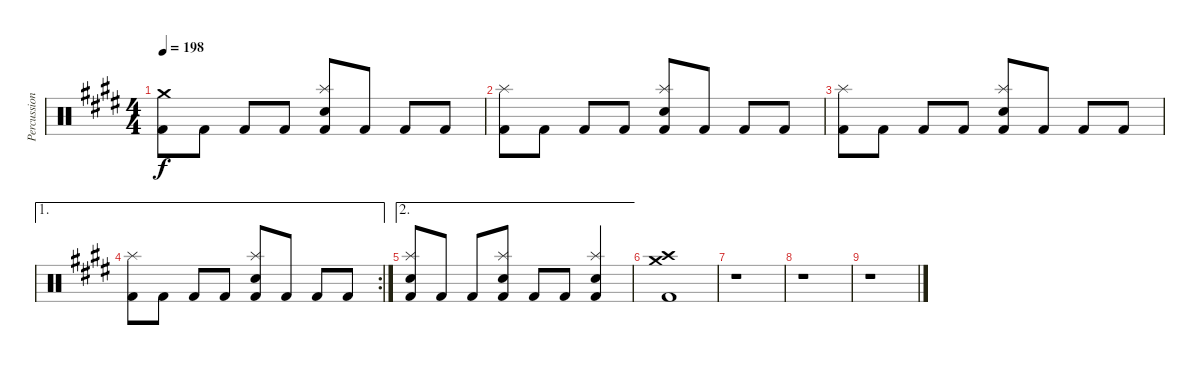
\track ("Percussion" "Percussion") {instrument percussion}
\staff {score}
\articulation defaults
\ts (4 4)
\tempo 198
\clef neutral
\ks e
("Crash medium (hit)" "Kick (hit) 2").8{dy f} "Kick (hit) 2".8 "Kick (hit) 2".8 "Kick (hit) 2".8 ("Splash (hit)" "Snare (hit) 2" "Kick (hit) 2").8 "Kick (hit) 2".8 "Kick (hit) 2".8 "Kick (hit) 2".8 |
("Splash (hit)" "Kick (hit) 2").8 "Kick (hit) 2".8 "Kick (hit) 2".8 "Kick (hit) 2".8 ("Splash (hit)" "Snare (hit) 2" "Kick (hit) 2").8 "Kick (hit) 2".8 "Kick (hit) 2".8 "Kick (hit) 2".8 |
("Splash (hit)" "Kick (hit) 2").8 "Kick (hit) 2".8 "Kick (hit) 2".8 "Kick (hit) 2".8 ("Splash (hit)" "Snare (hit) 2" "Kick (hit) 2").8 "Kick (hit) 2".8 "Kick (hit) 2".8 "Kick (hit) 2".8 |
\ae 1
\rc 2
("Splash (hit)" "Kick (hit) 2").8 "Kick (hit) 2".8 "Kick (hit) 2".8 "Kick (hit) 2".8 ("Splash (hit)" "Snare (hit) 2" "Kick (hit) 2").8 "Kick (hit) 2".8 "Kick (hit) 2".8 "Kick (hit) 2".8 |
\ae 2
("Splash (hit)" "Snare (hit) 2" "Kick (hit) 2").8 "Kick (hit) 2".8 "Kick (hit) 2".8 ("Splash (hit)" "Snare (hit) 2" "Kick (hit) 2").8 "Kick (hit) 2".8 "Kick (hit) 2".8 ("Splash (hit)" "Snare (hit) 2" "Kick (hit) 2").4 |
("Crash high (hit)" "Crash medium (hit)" "Kick (hit) 2").1 |
r.1 |
r.1 |
r.1
